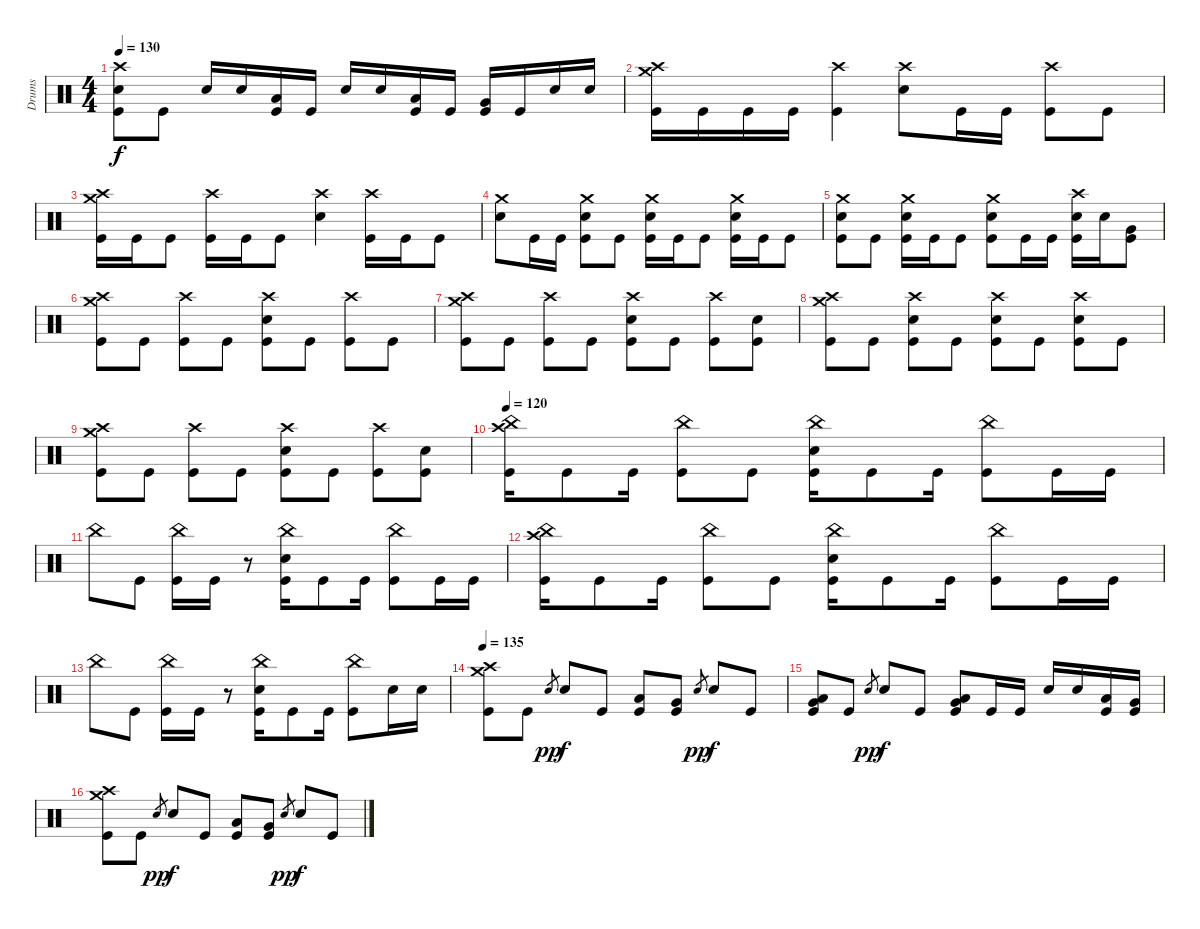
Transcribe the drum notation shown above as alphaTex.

\track ("Drums" "Drums") {instrument percussion}
\staff {score}
\articulation defaults
\ts (4 4)
\tempo 130
\clef neutral
\ks c
("Crash high (hit)" "Snare (hit) 2" "Kick (hit)").8{dy f} "Kick (hit)".8 "Snare (hit) 2".16 "Snare (hit) 2".16 ("Low Tom (hit)" "Kick (hit)").16 "Kick (hit)".16 "Snare (hit) 2".16 "Snare (hit) 2".16 ("Low Tom (hit)" "Kick (hit)").16 "Kick (hit)".16 ("Very Low Tom (hit)" "Kick (hit)").16 "Kick (hit)".16 "Snare (hit) 2".16 "Snare (hit) 2".16 |
("Crash high (hit)" "Crash medium (hit)" "Kick (hit)").16 "Kick (hit)".16 "Kick (hit)".16 "Kick (hit)".16 ("Crash high (hit)" "Kick (hit)").4 ("Crash high (hit)" "Snare (hit) 2").8 "Kick (hit)".16 "Kick (hit)".16 ("Crash high (hit)" "Kick (hit)").8 "Kick (hit)".8 |
("Crash high (hit)" "Crash medium (hit)" "Kick (hit)").16 "Kick (hit)".16 "Kick (hit)".8 ("Crash high (hit)" "Kick (hit)").16 "Kick (hit)".16 "Kick (hit)".8 ("Crash high (hit)" "Snare (hit) 2").4 ("Crash high (hit)" "Kick (hit)").16 "Kick (hit)".16 "Kick (hit)".8 |
("Crash medium (hit)" "Snare (hit) 2").8 "Kick (hit)".16 "Kick (hit)".16 ("Crash medium (hit)" "Snare (hit) 2" "Kick (hit)").8 "Kick (hit)".8 ("Crash medium (hit)" "Snare (hit) 2" "Kick (hit)").16 "Kick (hit)".16 "Kick (hit)".8 ("Crash medium (hit)" "Snare (hit) 2" "Kick (hit)").16 "Kick (hit)".16 "Kick (hit)".8 |
("Crash medium (hit)" "Snare (hit) 2" "Kick (hit)").8 "Kick (hit)".8 ("Crash medium (hit)" "Snare (hit) 2" "Kick (hit)").16 "Kick (hit)".16 "Kick (hit)".8 ("Crash medium (hit)" "Snare (hit) 2" "Kick (hit)").8 "Kick (hit)".16 "Kick (hit)".16 ("Crash high (hit)" "Snare (hit) 2" "Kick (hit)").16 "Snare (hit) 2".16 ("Very Low Tom (hit)" "Kick (hit)").8 |
("Crash high (hit)" "Crash medium (hit)" "Kick (hit)").8 "Kick (hit)".8 ("Crash high (hit)" "Kick (hit)").8 "Kick (hit)".8 ("Crash high (hit)" "Snare (hit) 2" "Kick (hit)").8 "Kick (hit)".8 ("Crash high (hit)" "Kick (hit)").8 "Kick (hit)".8 |
("Crash high (hit)" "Crash medium (hit)" "Kick (hit)").8 "Kick (hit)".8 ("Crash high (hit)" "Kick (hit)").8 "Kick (hit)".8 ("Crash high (hit)" "Snare (hit) 2" "Kick (hit)").8 "Kick (hit)".8 ("Crash high (hit)" "Kick (hit)").8 ("Snare (hit) 2" "Kick (hit)").8 |
("Crash high (hit)" "Crash medium (hit)" "Kick (hit)").8 "Kick (hit)".8 ("Crash high (hit)" "Snare (hit) 2" "Kick (hit)").8 "Kick (hit)".8 ("Crash high (hit)" "Snare (hit) 2" "Kick (hit)").8 "Kick (hit)".8 ("Crash high (hit)" "Snare (hit) 2" "Kick (hit)").8 "Kick (hit)".8 |
("Crash high (hit)" "Crash medium (hit)" "Kick (hit)").8 "Kick (hit)".8 ("Crash high (hit)" "Kick (hit)").8 "Kick (hit)".8 ("Crash high (hit)" "Snare (hit) 2" "Kick (hit)").8 "Kick (hit)".8 ("Crash high (hit)" "Kick (hit)").8 ("Snare (hit) 2" "Kick (hit)").8 |
\tempo 120
("Crash high (hit)" "China (hit)" "Kick (hit)").16 "Kick (hit)".8 "Kick (hit)".16 ("China (hit)" "Kick (hit)").8 "Kick (hit)".8 ("China (hit)" "Snare (hit) 2" "Kick (hit)").16 "Kick (hit)".8 "Kick (hit)".16 ("China (hit)" "Kick (hit)").8 "Kick (hit)".16 "Kick (hit)".16 |
"China (hit)".8 "Kick (hit)".8 ("China (hit)" "Kick (hit)").16 "Kick (hit)".16 r.8 ("China (hit)" "Snare (hit) 2" "Kick (hit)").16 "Kick (hit)".8 "Kick (hit)".16 ("China (hit)" "Kick (hit)").8 "Kick (hit)".16 "Kick (hit)".16 |
("Crash high (hit)" "China (hit)" "Kick (hit)").16 "Kick (hit)".8 "Kick (hit)".16 ("China (hit)" "Kick (hit)").8 "Kick (hit)".8 ("China (hit)" "Snare (hit) 2" "Kick (hit)").16 "Kick (hit)".8 "Kick (hit)".16 ("China (hit)" "Kick (hit)").8 "Kick (hit)".16 "Kick (hit)".16 |
"China (hit)".8 "Kick (hit)".8 ("China (hit)" "Kick (hit)").16 "Kick (hit)".16 r.8 ("China (hit)" "Snare (hit) 2" "Kick (hit)").16 "Kick (hit)".8 "Kick (hit)".16 ("China (hit)" "Kick (hit)").8 "Snare (hit) 2".16 "Snare (hit) 2".16 |
\tempo 135
("Crash high (hit)" "Crash medium (hit)" "Kick (hit)").8 "Kick (hit)".8 "Snare (hit)".8{gr dy pp} "Snare (hit) 2".8{dy f} "Kick (hit)".8 ("Low Tom (hit)" "Kick (hit)").8 ("Very Low Tom (hit)" "Kick (hit)").8 "Snare (hit)".8{gr dy pp} "Snare (hit) 2".8{dy f} "Kick (hit)".8 |
("Low Tom (hit)" "Very Low Tom (hit)" "Kick (hit)").8 "Kick (hit)".8 "Snare (hit)".8{gr dy pp} "Snare (hit) 2".8{dy f} "Kick (hit)".8 ("Low Tom (hit)" "Very Low Tom (hit)" "Kick (hit)").8 "Kick (hit)".16 "Kick (hit)".16 "Snare (hit) 2".16 "Snare (hit) 2".16 ("Low Tom (hit)" "Kick (hit)").16 ("Very Low Tom (hit)" "Kick (hit)").16 |
("Crash high (hit)" "Crash medium (hit)" "Kick (hit)").8 "Kick (hit)".8 "Snare (hit)".8{gr dy pp} "Snare (hit) 2".8{dy f} "Kick (hit)".8 ("Low Tom (hit)" "Kick (hit)").8 ("Very Low Tom (hit)" "Kick (hit)").8 "Snare (hit)".8{gr dy pp} "Snare (hit) 2".8{dy f} "Kick (hit)".8
